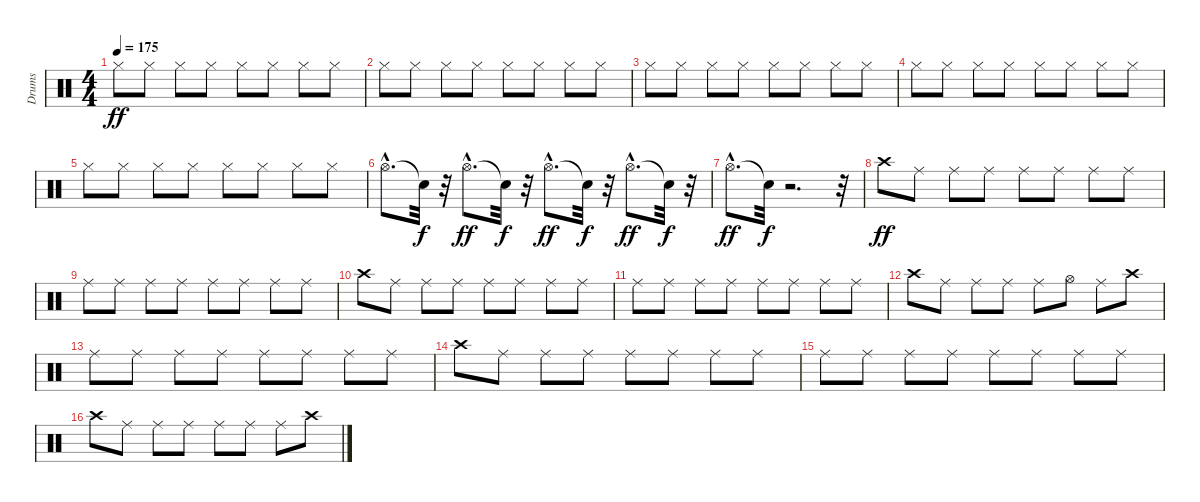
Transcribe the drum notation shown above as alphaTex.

\track ("Drums" "Drums") {instrument percussion}
\staff {score}
\articulation defaults
\ts (4 4)
\tempo 175
\clef neutral
\ks c "Hi-Hat (closed)".8{dy ff} "Hi-Hat (closed)".8 "Hi-Hat (closed)".8 "Hi-Hat (closed)".8 "Hi-Hat (closed)".8 "Hi-Hat (closed)".8 "Hi-Hat (closed)".8 "Hi-Hat (closed)".8
|
"Hi-Hat (closed)".8 "Hi-Hat (closed)".8 "Hi-Hat (closed)".8 "Hi-Hat (closed)".8 "Hi-Hat (closed)".8 "Hi-Hat (closed)".8 "Hi-Hat (closed)".8 "Hi-Hat (closed)".8 |
"Hi-Hat (closed)".8 "Hi-Hat (closed)".8 "Hi-Hat (closed)".8 "Hi-Hat (closed)".8 "Hi-Hat (closed)".8 "Hi-Hat (closed)".8 "Hi-Hat (closed)".8 "Hi-Hat (closed)".8 |
"Hi-Hat (closed)".8 "Hi-Hat (closed)".8 "Hi-Hat (closed)".8 "Hi-Hat (closed)".8 "Hi-Hat (closed)".8 "Hi-Hat (closed)".8 "Hi-Hat (closed)".8 "Hi-Hat (closed)".8 |
"Hi-Hat (closed)".8 "Hi-Hat (closed)".8 "Hi-Hat (closed)".8 "Hi-Hat (closed)".8 "Hi-Hat (closed)".8 "Hi-Hat (closed)".8 "Hi-Hat (closed)".8 "Hi-Hat (closed)".8 |
"Hi-Hat (open)"{hac}.8{d} "Snare (hit)"{t}.32{dy f} r.32 "Hi-Hat (open)"{hac}.8{d dy ff} "Snare (hit)"{t}.32{dy f} r.32 "Hi-Hat (open)"{hac}.8{d dy ff} "Snare (hit)"{t}.32{dy f} r.32 "Hi-Hat (open)"{hac}.8{d dy ff} "Snare (hit)"{t}.32{dy f} r.32 |
"Hi-Hat (open)"{hac}.8{d dy ff} "Snare (hit)"{t}.32{dy f} r.2{d} r.32 |
"Crash high (hit)".8{dy ff} "Ride (middle)".8 "Ride (middle)".8 "Ride (middle)".8 "Ride (middle)".8 "Ride (middle)".8 "Ride (middle)".8 "Ride (middle)".8 |
"Ride (middle)".8 "Ride (middle)".8 "Ride (middle)".8 "Ride (middle)".8 "Ride (middle)".8 "Ride (middle)".8 "Ride (middle)".8 "Ride (middle)".8 |
"Crash high (hit)".8 "Ride (middle)".8 "Ride (middle)".8 "Ride (middle)".8 "Ride (middle)".8 "Ride (middle)".8 "Ride (middle)".8 "Ride (middle)".8 |
"Ride (middle)".8 "Ride (middle)".8 "Ride (middle)".8 "Ride (middle)".8 "Ride (middle)".8 "Ride (middle)".8 "Ride (middle)".8 "Ride (middle)".8 |
"Crash high (hit)".8 "Ride (middle)".8 "Ride (middle)".8 "Ride (middle)".8 "Ride (middle)".8 "Hi-Hat (open)".8 "Ride (middle)".8 "Crash high (hit)".8 |
"Ride (middle)".8 "Ride (middle)".8 "Ride (middle)".8 "Ride (middle)".8 "Ride (middle)".8 "Ride (middle)".8 "Ride (middle)".8 "Ride (middle)".8 |
"Crash high (hit)".8 "Ride (middle)".8 "Ride (middle)".8 "Ride (middle)".8 "Ride (middle)".8 "Ride (middle)".8 "Ride (middle)".8 "Ride (middle)".8 |
"Ride (middle)".8 "Ride (middle)".8 "Ride (middle)".8 "Ride (middle)".8 "Ride (middle)".8 "Ride (middle)".8 "Ride (middle)".8 "Ride (middle)".8 |
"Crash high (hit)".8 "Ride (middle)".8 "Ride (middle)".8 "Ride (middle)".8 "Ride (middle)".8 "Ride (middle)".8 "Ride (middle)".8 "Crash high (hit)".8
